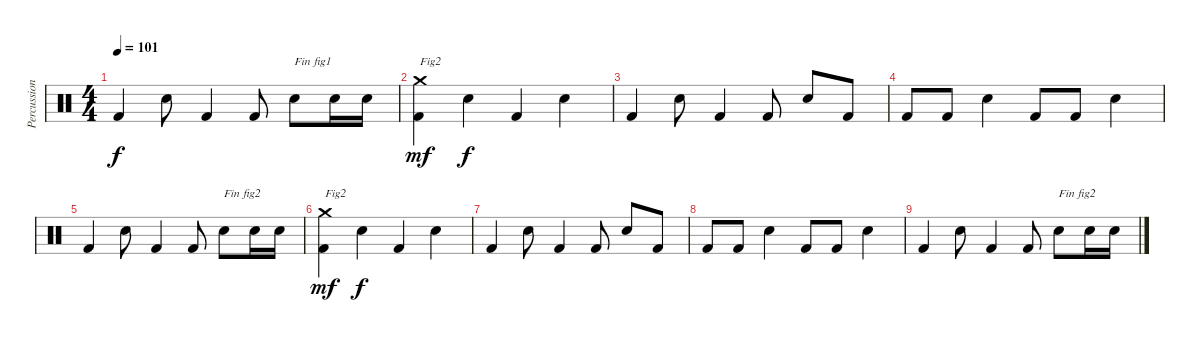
\track ("Percussions" "Percussion") {instrument percussion}
\staff {score}
\articulation defaults
\ts (4 4)
\tempo 101
\clef neutral
\ks c "Kick (hit) 2".4{dy f} "Snare (hit) 2".8 "Kick (hit) 2".4 "Kick (hit) 2".8 "Snare (hit) 2".8{txt "Fin fig1"} "Snare (hit) 2".16 "Snare (hit) 2".16
|
("Kick (hit) 2" "Crash medium (hit)").4{txt "Fig2" dy mf volume 2} "Snare (hit) 2".4{dy f} "Kick (hit) 2".4 "Snare (hit) 2".4 |
"Kick (hit) 2".4 "Snare (hit) 2".8 "Kick (hit) 2".4 "Kick (hit) 2".8 "Snare (hit) 2".8 "Kick (hit) 2".8 |
"Kick (hit) 2".8 "Kick (hit) 2".8 "Snare (hit) 2".4 "Kick (hit) 2".8 "Kick (hit) 2".8 "Snare (hit) 2".4 |
"Kick (hit) 2".4 "Snare (hit) 2".8 "Kick (hit) 2".4 "Kick (hit) 2".8 "Snare (hit) 2".8{txt "Fin fig2"} "Snare (hit) 2".16 "Snare (hit) 2".16 |
("Kick (hit) 2" "Crash medium (hit)").4{txt "Fig2" dy mf volume 0} "Snare (hit) 2".4{dy f} "Kick (hit) 2".4 "Snare (hit) 2".4 |
"Kick (hit) 2".4 "Snare (hit) 2".8 "Kick (hit) 2".4 "Kick (hit) 2".8 "Snare (hit) 2".8 "Kick (hit) 2".8 |
"Kick (hit) 2".8 "Kick (hit) 2".8 "Snare (hit) 2".4 "Kick (hit) 2".8 "Kick (hit) 2".8 "Snare (hit) 2".4 |
"Kick (hit) 2".4 "Snare (hit) 2".8 "Kick (hit) 2".4 "Kick (hit) 2".8 "Snare (hit) 2".8{txt "Fin fig2"} "Snare (hit) 2".16 "Snare (hit) 2".16
